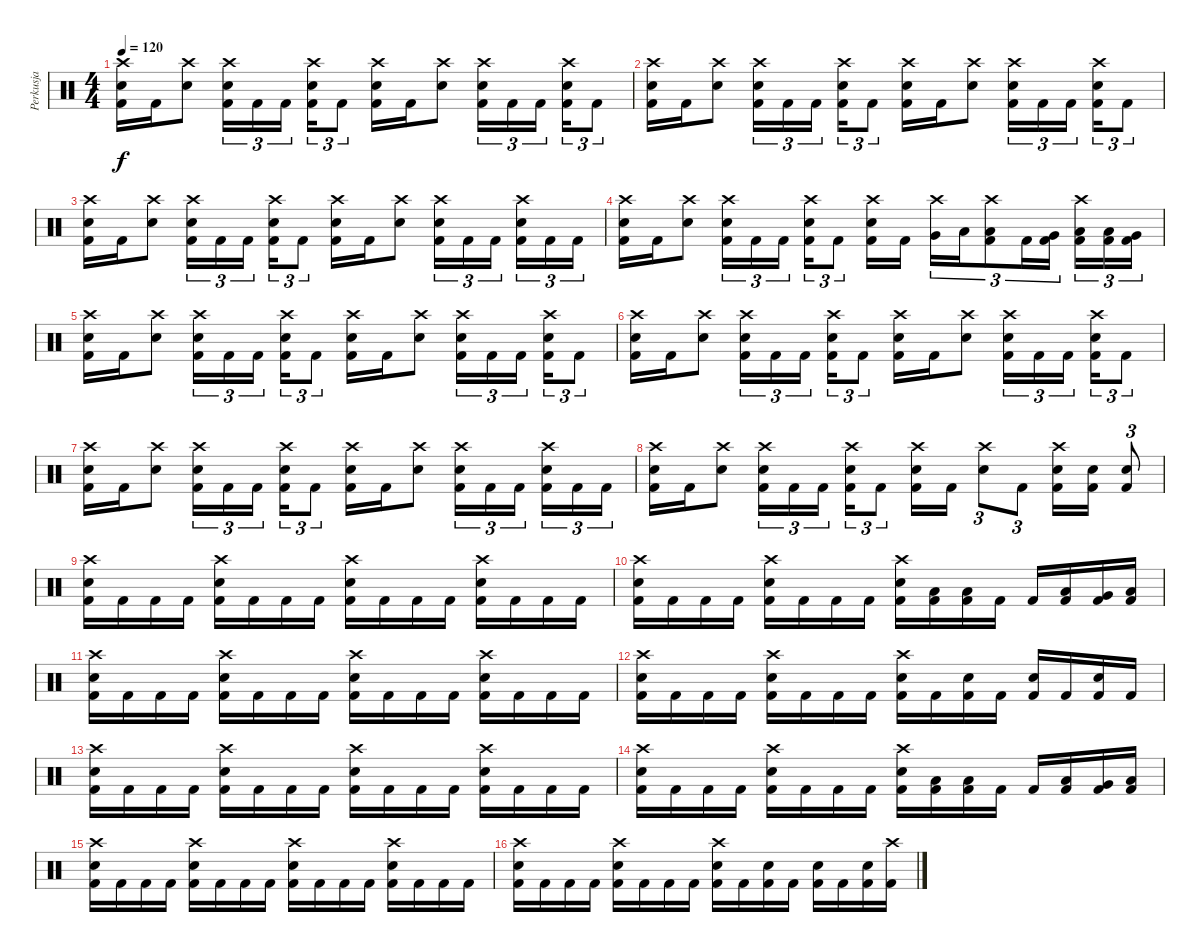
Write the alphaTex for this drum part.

\track ("Perkusja" "Perkusja") {instrument percussion}
\staff {score}
\articulation defaults
\ts (4 4)
\tempo 120
\clef neutral
\ks c
("Crash high (hit)" "Electric Snare (hit)" "Kick (hit) 2").16{dy f} "Kick (hit) 2".16 ("Crash high (hit)" "Electric Snare (hit)").8 ("Crash high (hit)" "Electric Snare (hit)" "Kick (hit) 2").16{tu (3 2)} "Kick (hit) 2".16{tu (3 2)} "Kick (hit) 2".16{tu (3 2) beam splitsecondary} ("Crash high (hit)" "Electric Snare (hit)" "Kick (hit) 2").16{tu (3 2)} "Kick (hit) 2".8{tu (3 2)} ("Crash high (hit)" "Electric Snare (hit)" "Kick (hit) 2").16 "Kick (hit) 2".16 ("Crash high (hit)" "Electric Snare (hit)").8 ("Crash high (hit)" "Electric Snare (hit)" "Kick (hit) 2").16{tu (3 2)} "Kick (hit) 2".16{tu (3 2)} "Kick (hit) 2".16{tu (3 2) beam splitsecondary} ("Crash high (hit)" "Electric Snare (hit)" "Kick (hit) 2").16{tu (3 2)} "Kick (hit) 2".8{tu (3 2)} |
("Crash high (hit)" "Electric Snare (hit)" "Kick (hit) 2").16 "Kick (hit) 2".16 ("Crash high (hit)" "Electric Snare (hit)").8 ("Crash high (hit)" "Electric Snare (hit)" "Kick (hit) 2").16{tu (3 2)} "Kick (hit) 2".16{tu (3 2)} "Kick (hit) 2".16{tu (3 2) beam splitsecondary} ("Crash high (hit)" "Electric Snare (hit)" "Kick (hit) 2").16{tu (3 2)} "Kick (hit) 2".8{tu (3 2)} ("Crash high (hit)" "Electric Snare (hit)" "Kick (hit) 2").16 "Kick (hit) 2".16 ("Crash high (hit)" "Electric Snare (hit)").8 ("Crash high (hit)" "Electric Snare (hit)" "Kick (hit) 2").16{tu (3 2)} "Kick (hit) 2".16{tu (3 2)} "Kick (hit) 2".16{tu (3 2) beam splitsecondary} ("Crash high (hit)" "Electric Snare (hit)" "Kick (hit) 2").16{tu (3 2)} "Kick (hit) 2".8{tu (3 2)} |
("Crash high (hit)" "Electric Snare (hit)" "Kick (hit) 2").16 "Kick (hit) 2".16 ("Crash high (hit)" "Electric Snare (hit)").8 ("Crash high (hit)" "Electric Snare (hit)" "Kick (hit) 2").16{tu (3 2)} "Kick (hit) 2".16{tu (3 2)} "Kick (hit) 2".16{tu (3 2) beam splitsecondary} ("Crash high (hit)" "Electric Snare (hit)" "Kick (hit) 2").16{tu (3 2)} "Kick (hit) 2".8{tu (3 2)} ("Crash high (hit)" "Electric Snare (hit)" "Kick (hit) 2").16 "Kick (hit) 2".16 ("Crash high (hit)" "Electric Snare (hit)").8 ("Crash high (hit)" "Electric Snare (hit)" "Kick (hit) 2").16{tu (3 2)} "Kick (hit) 2".16{tu (3 2)} "Kick (hit) 2".16{tu (3 2) beam splitsecondary} ("Crash high (hit)" "Electric Snare (hit)" "Kick (hit) 2").16{tu (3 2)} "Kick (hit) 2".16{tu (3 2)} "Kick (hit) 2".16{tu (3 2)} |
("Crash high (hit)" "Electric Snare (hit)" "Kick (hit) 2").16 "Kick (hit) 2".16 ("Crash high (hit)" "Electric Snare (hit)").8 ("Crash high (hit)" "Electric Snare (hit)" "Kick (hit) 2").16{tu (3 2)} "Kick (hit) 2".16{tu (3 2)} "Kick (hit) 2".16{tu (3 2) beam splitsecondary} ("Crash high (hit)" "Electric Snare (hit)" "Kick (hit) 2").16{tu (3 2)} "Kick (hit) 2".8{tu (3 2)} ("Crash high (hit)" "Electric Snare (hit)" "Kick (hit) 2").16 "Kick (hit) 2".16{beam splitsecondary} ("Crash high (hit)" "Very Low Tom (hit)").16{tu (3 2)} "Low Floor Tom (hit)".16{tu (3 2)} ("Crash high (hit)" "Low Floor Tom (hit)" "Kick (hit) 2").8{tu (3 2)} "Kick (hit) 2".16{tu (3 2)} ("Very Low Tom (hit)" "Kick (hit) 2").16{tu (3 2) beam splitsecondary} ("Crash high (hit)" "Low Tom (hit)" "Kick (hit) 2").16{tu (3 2)} ("Low Tom (hit)" "Kick (hit) 2").16{tu (3 2)} ("Very Low Tom (hit)" "Kick (hit) 2").16{tu (3 2)} |
("Crash high (hit)" "Electric Snare (hit)" "Kick (hit) 2").16 "Kick (hit) 2".16 ("Crash high (hit)" "Electric Snare (hit)").8 ("Crash high (hit)" "Electric Snare (hit)" "Kick (hit) 2").16{tu (3 2)} "Kick (hit) 2".16{tu (3 2)} "Kick (hit) 2".16{tu (3 2) beam splitsecondary} ("Crash high (hit)" "Electric Snare (hit)" "Kick (hit) 2").16{tu (3 2)} "Kick (hit) 2".8{tu (3 2)} ("Crash high (hit)" "Electric Snare (hit)" "Kick (hit) 2").16 "Kick (hit) 2".16 ("Crash high (hit)" "Electric Snare (hit)").8 ("Crash high (hit)" "Electric Snare (hit)" "Kick (hit) 2").16{tu (3 2)} "Kick (hit) 2".16{tu (3 2)} "Kick (hit) 2".16{tu (3 2) beam splitsecondary} ("Crash high (hit)" "Electric Snare (hit)" "Kick (hit) 2").16{tu (3 2)} "Kick (hit) 2".8{tu (3 2)} |
("Crash high (hit)" "Electric Snare (hit)" "Kick (hit) 2").16 "Kick (hit) 2".16 ("Crash high (hit)" "Electric Snare (hit)").8 ("Crash high (hit)" "Electric Snare (hit)" "Kick (hit) 2").16{tu (3 2)} "Kick (hit) 2".16{tu (3 2)} "Kick (hit) 2".16{tu (3 2) beam splitsecondary} ("Crash high (hit)" "Electric Snare (hit)" "Kick (hit) 2").16{tu (3 2)} "Kick (hit) 2".8{tu (3 2)} ("Crash high (hit)" "Electric Snare (hit)" "Kick (hit) 2").16 "Kick (hit) 2".16 ("Crash high (hit)" "Electric Snare (hit)").8 ("Crash high (hit)" "Electric Snare (hit)" "Kick (hit) 2").16{tu (3 2)} "Kick (hit) 2".16{tu (3 2)} "Kick (hit) 2".16{tu (3 2) beam splitsecondary} ("Crash high (hit)" "Electric Snare (hit)" "Kick (hit) 2").16{tu (3 2)} "Kick (hit) 2".8{tu (3 2)} |
("Crash high (hit)" "Electric Snare (hit)" "Kick (hit) 2").16 "Kick (hit) 2".16 ("Crash high (hit)" "Electric Snare (hit)").8 ("Crash high (hit)" "Electric Snare (hit)" "Kick (hit) 2").16{tu (3 2)} "Kick (hit) 2".16{tu (3 2)} "Kick (hit) 2".16{tu (3 2) beam splitsecondary} ("Crash high (hit)" "Electric Snare (hit)" "Kick (hit) 2").16{tu (3 2)} "Kick (hit) 2".8{tu (3 2)} ("Crash high (hit)" "Electric Snare (hit)" "Kick (hit) 2").16 "Kick (hit) 2".16 ("Crash high (hit)" "Electric Snare (hit)").8 ("Crash high (hit)" "Electric Snare (hit)" "Kick (hit) 2").16{tu (3 2)} "Kick (hit) 2".16{tu (3 2)} "Kick (hit) 2".16{tu (3 2) beam splitsecondary} ("Crash high (hit)" "Electric Snare (hit)" "Kick (hit) 2").16{tu (3 2)} "Kick (hit) 2".16{tu (3 2)} "Kick (hit) 2".16{tu (3 2)} |
("Crash high (hit)" "Electric Snare (hit)" "Kick (hit) 2").16 "Kick (hit) 2".16 ("Crash high (hit)" "Electric Snare (hit)").8 ("Crash high (hit)" "Electric Snare (hit)" "Kick (hit) 2").16{tu (3 2)} "Kick (hit) 2".16{tu (3 2)} "Kick (hit) 2".16{tu (3 2) beam splitsecondary} ("Crash high (hit)" "Electric Snare (hit)" "Kick (hit) 2").16{tu (3 2)} "Kick (hit) 2".8{tu (3 2)} ("Crash high (hit)" "Electric Snare (hit)" "Kick (hit) 2").16 "Kick (hit) 2".16 ("Crash high (hit)" "Electric Snare (hit)").8{tu (3 2)} "Kick (hit) 2".8{tu (3 2)} ("Crash high (hit)" "Electric Snare (hit)" "Kick (hit) 2").16 ("Electric Snare (hit)" "Kick (hit) 2").16 ("Electric Snare (hit)" "Kick (hit) 2").8{tu (3 2)} |
("Crash high (hit)" "Electric Snare (hit)" "Kick (hit) 2").16 "Kick (hit) 2".16 "Kick (hit) 2".16 "Kick (hit) 2".16 ("Crash high (hit)" "Electric Snare (hit)" "Kick (hit) 2").16 "Kick (hit) 2".16 "Kick (hit) 2".16 "Kick (hit) 2".16 ("Crash high (hit)" "Electric Snare (hit)" "Kick (hit) 2").16 "Kick (hit) 2".16 "Kick (hit) 2".16 "Kick (hit) 2".16 ("Crash high (hit)" "Electric Snare (hit)" "Kick (hit) 2").16 "Kick (hit) 2".16 "Kick (hit) 2".16 "Kick (hit) 2".16 |
("Crash high (hit)" "Electric Snare (hit)" "Kick (hit) 2").16 "Kick (hit) 2".16 "Kick (hit) 2".16 "Kick (hit) 2".16 ("Crash high (hit)" "Electric Snare (hit)" "Kick (hit) 2").16 "Kick (hit) 2".16 "Kick (hit) 2".16 "Kick (hit) 2".16 ("Crash high (hit)" "Electric Snare (hit)" "Kick (hit) 2").16 ("Low Floor Tom (hit)" "Kick (hit) 2").16 ("Low Floor Tom (hit)" "Kick (hit) 2").16 "Kick (hit) 2".16 "Kick (hit) 2".16 ("Low Floor Tom (hit)" "Kick (hit) 2").16 ("Very Low Tom (hit)" "Kick (hit) 2").16 ("Low Floor Tom (hit)" "Kick (hit) 2").16 |
("Crash high (hit)" "Electric Snare (hit)" "Kick (hit) 2").16 "Kick (hit) 2".16 "Kick (hit) 2".16 "Kick (hit) 2".16 ("Crash high (hit)" "Electric Snare (hit)" "Kick (hit) 2").16 "Kick (hit) 2".16 "Kick (hit) 2".16 "Kick (hit) 2".16 ("Crash high (hit)" "Electric Snare (hit)" "Kick (hit) 2").16 "Kick (hit) 2".16 "Kick (hit) 2".16 "Kick (hit) 2".16 ("Crash high (hit)" "Electric Snare (hit)" "Kick (hit) 2").16 "Kick (hit) 2".16 "Kick (hit) 2".16 "Kick (hit) 2".16 |
("Crash high (hit)" "Electric Snare (hit)" "Kick (hit) 2").16 "Kick (hit) 2".16 "Kick (hit) 2".16 "Kick (hit) 2".16 ("Crash high (hit)" "Electric Snare (hit)" "Kick (hit) 2").16 "Kick (hit) 2".16 "Kick (hit) 2".16 "Kick (hit) 2".16 ("Crash high (hit)" "Electric Snare (hit)" "Kick (hit) 2").16 "Kick (hit) 2".16 ("Electric Snare (hit)" "Kick (hit) 2").16 "Kick (hit) 2".16 ("Electric Snare (hit)" "Kick (hit) 2").16 "Kick (hit) 2".16 ("Electric Snare (hit)" "Kick (hit) 2").16 "Kick (hit) 2".16 |
("Crash high (hit)" "Electric Snare (hit)" "Kick (hit) 2").16 "Kick (hit) 2".16 "Kick (hit) 2".16 "Kick (hit) 2".16 ("Crash high (hit)" "Electric Snare (hit)" "Kick (hit) 2").16 "Kick (hit) 2".16 "Kick (hit) 2".16 "Kick (hit) 2".16 ("Crash high (hit)" "Electric Snare (hit)" "Kick (hit) 2").16 "Kick (hit) 2".16 "Kick (hit) 2".16 "Kick (hit) 2".16 ("Crash high (hit)" "Electric Snare (hit)" "Kick (hit) 2").16 "Kick (hit) 2".16 "Kick (hit) 2".16 "Kick (hit) 2".16 |
("Crash high (hit)" "Electric Snare (hit)" "Kick (hit) 2").16 "Kick (hit) 2".16 "Kick (hit) 2".16 "Kick (hit) 2".16 ("Crash high (hit)" "Electric Snare (hit)" "Kick (hit) 2").16 "Kick (hit) 2".16 "Kick (hit) 2".16 "Kick (hit) 2".16 ("Crash high (hit)" "Electric Snare (hit)" "Kick (hit) 2").16 ("Low Floor Tom (hit)" "Kick (hit) 2").16 ("Low Floor Tom (hit)" "Kick (hit) 2").16 "Kick (hit) 2".16 "Kick (hit) 2".16 ("Low Floor Tom (hit)" "Kick (hit) 2").16 ("Very Low Tom (hit)" "Kick (hit) 2").16 ("Low Floor Tom (hit)" "Kick (hit) 2").16 |
("Crash high (hit)" "Electric Snare (hit)" "Kick (hit) 2").16 "Kick (hit) 2".16 "Kick (hit) 2".16 "Kick (hit) 2".16 ("Crash high (hit)" "Electric Snare (hit)" "Kick (hit) 2").16 "Kick (hit) 2".16 "Kick (hit) 2".16 "Kick (hit) 2".16 ("Crash high (hit)" "Electric Snare (hit)" "Kick (hit) 2").16 "Kick (hit) 2".16 "Kick (hit) 2".16 "Kick (hit) 2".16 ("Crash high (hit)" "Electric Snare (hit)" "Kick (hit) 2").16 "Kick (hit) 2".16 "Kick (hit) 2".16 "Kick (hit) 2".16 |
("Crash high (hit)" "Electric Snare (hit)" "Kick (hit) 2").16 "Kick (hit) 2".16 "Kick (hit) 2".16 "Kick (hit) 2".16 ("Crash high (hit)" "Electric Snare (hit)" "Kick (hit) 2").16 "Kick (hit) 2".16 "Kick (hit) 2".16 "Kick (hit) 2".16 ("Crash high (hit)" "Electric Snare (hit)" "Kick (hit) 2").16 "Kick (hit) 2".16 ("Electric Snare (hit)" "Kick (hit) 2").16 "Kick (hit) 2".16 ("Electric Snare (hit)" "Kick (hit) 2").16 "Kick (hit) 2".16 ("Electric Snare (hit)" "Kick (hit) 2").16 ("Crash high (hit)" "Kick (hit) 2").16
